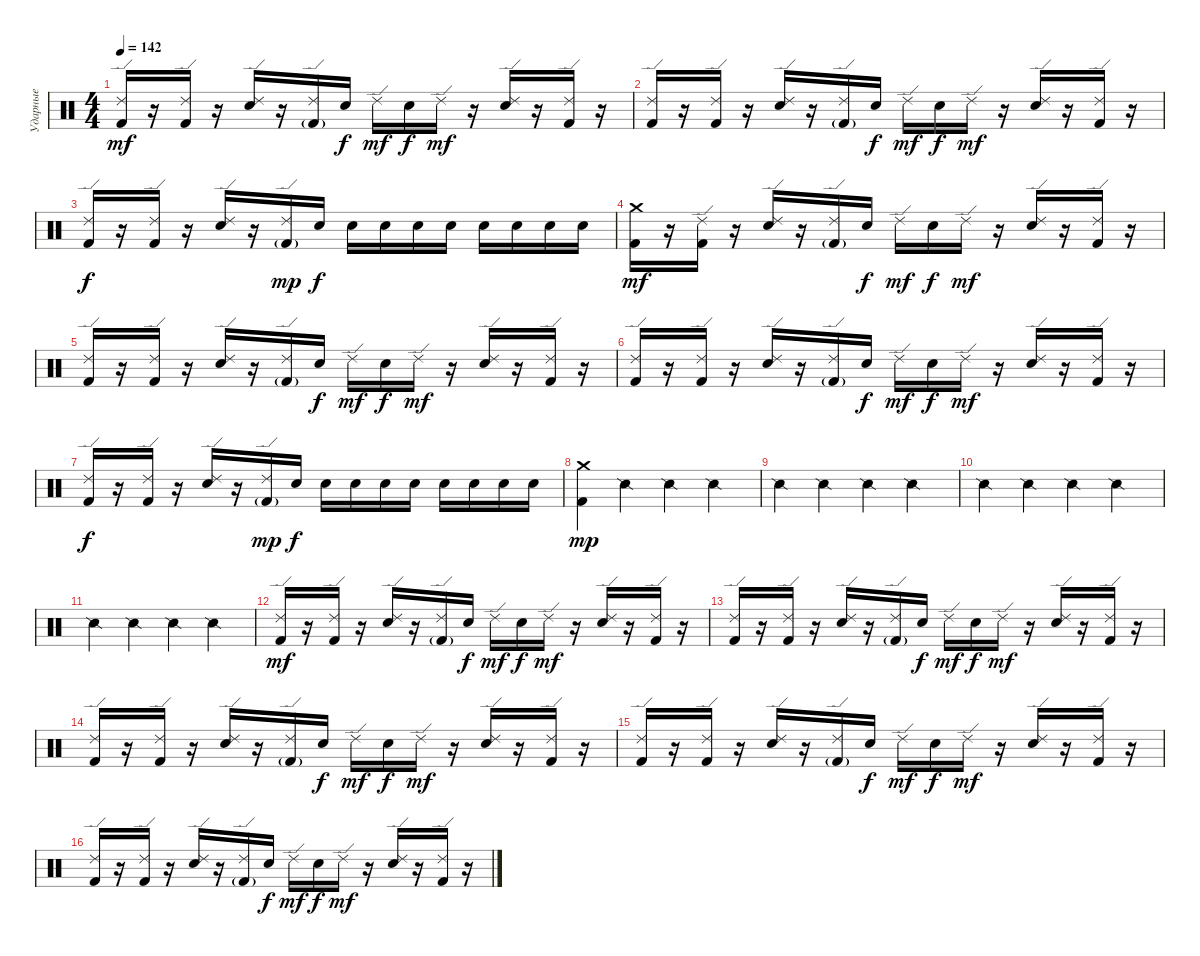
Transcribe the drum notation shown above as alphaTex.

\track ("Ударные" "Ударные") {instrument percussion}
\staff {score}
\articulation defaults
\ts (4 4)
\tempo 142
\clef neutral
\ks c
("Kick (hit) 2" "Ride (edge) 2").16{dy mf} r.16 ("Kick (hit) 2" "Ride (edge) 2").16 r.16 ("Electric Snare (hit)" "Ride (edge) 2").16 r.16 ("Kick (hit) 2"{g} "Ride (edge) 2").16 "Electric Snare (hit)".16{dy f} "Ride (edge) 2".16{dy mf} "Electric Snare (hit)".16{dy f} "Ride (edge) 2".16{dy mf} r.16 ("Electric Snare (hit)" "Ride (edge) 2").16 r.16 ("Kick (hit) 2" "Ride (edge) 2").16 r.16 |
("Kick (hit) 2" "Ride (edge) 2").16 r.16 ("Kick (hit) 2" "Ride (edge) 2").16 r.16 ("Electric Snare (hit)" "Ride (edge) 2").16 r.16 ("Kick (hit) 2"{g} "Ride (edge) 2").16 "Electric Snare (hit)".16{dy f} "Ride (edge) 2".16{dy mf} "Electric Snare (hit)".16{dy f} "Ride (edge) 2".16{dy mf} r.16 ("Electric Snare (hit)" "Ride (edge) 2").16 r.16 ("Kick (hit) 2" "Ride (edge) 2").16 r.16 |
("Kick (hit) 2" "Ride (edge) 2").16{dy f} r.16 ("Kick (hit) 2" "Ride (edge) 2").16 r.16 ("Electric Snare (hit)" "Ride (edge) 2").16 r.16 ("Kick (hit) 2"{g} "Ride (edge) 2").16{dy mp} "Electric Snare (hit)".16{dy f} "Electric Snare (hit)".16 "Electric Snare (hit)".16 "Electric Snare (hit)".16 "Electric Snare (hit)".16 "Electric Snare (hit)".16 "Electric Snare (hit)".16 "Electric Snare (hit)".16 "Electric Snare (hit)".16 |
("Kick (hit) 2" "Crash medium (hit)").16{dy mf} r.16 ("Kick (hit) 2" "Ride (edge) 2").16 r.16 ("Electric Snare (hit)" "Ride (edge) 2").16 r.16 ("Kick (hit) 2"{g} "Ride (edge) 2").16 "Electric Snare (hit)".16{dy f} "Ride (edge) 2".16{dy mf} "Electric Snare (hit)".16{dy f} "Ride (edge) 2".16{dy mf} r.16 ("Electric Snare (hit)" "Ride (edge) 2").16 r.16 ("Kick (hit) 2" "Ride (edge) 2").16 r.16 |
("Kick (hit) 2" "Ride (edge) 2").16 r.16 ("Kick (hit) 2" "Ride (edge) 2").16 r.16 ("Electric Snare (hit)" "Ride (edge) 2").16 r.16 ("Kick (hit) 2"{g} "Ride (edge) 2").16 "Electric Snare (hit)".16{dy f} "Ride (edge) 2".16{dy mf} "Electric Snare (hit)".16{dy f} "Ride (edge) 2".16{dy mf} r.16 ("Electric Snare (hit)" "Ride (edge) 2").16 r.16 ("Kick (hit) 2" "Ride (edge) 2").16 r.16 |
("Kick (hit) 2" "Ride (edge) 2").16 r.16 ("Kick (hit) 2" "Ride (edge) 2").16 r.16 ("Electric Snare (hit)" "Ride (edge) 2").16 r.16 ("Kick (hit) 2"{g} "Ride (edge) 2").16 "Electric Snare (hit)".16{dy f} "Ride (edge) 2".16{dy mf} "Electric Snare (hit)".16{dy f} "Ride (edge) 2".16{dy mf} r.16 ("Electric Snare (hit)" "Ride (edge) 2").16 r.16 ("Kick (hit) 2" "Ride (edge) 2").16 r.16 |
("Kick (hit) 2" "Ride (edge) 2").16{dy f} r.16 ("Kick (hit) 2" "Ride (edge) 2").16 r.16 ("Electric Snare (hit)" "Ride (edge) 2").16 r.16 ("Kick (hit) 2"{g} "Ride (edge) 2").16{dy mp} "Electric Snare (hit)".16{dy f} "Electric Snare (hit)".16 "Electric Snare (hit)".16 "Electric Snare (hit)".16 "Electric Snare (hit)".16 "Electric Snare (hit)".16 "Electric Snare (hit)".16 "Electric Snare (hit)".16 "Electric Snare (hit)".16 |
("Kick (hit) 2" "Crash medium (hit)").4{dy mp} "Snare (side stick) 2".4 "Snare (side stick) 2".4 "Snare (side stick) 2".4 |
"Snare (side stick) 2".4 "Snare (side stick) 2".4 "Snare (side stick) 2".4 "Snare (side stick) 2".4 |
"Snare (side stick) 2".4 "Snare (side stick) 2".4 "Snare (side stick) 2".4 "Snare (side stick) 2".4 |
"Snare (side stick) 2".4 "Snare (side stick) 2".4 "Snare (side stick) 2".4 "Snare (side stick) 2".4 |
("Kick (hit) 2" "Ride (edge) 2").16{dy mf} r.16 ("Kick (hit) 2" "Ride (edge) 2").16 r.16 ("Electric Snare (hit)" "Ride (edge) 2").16 r.16 ("Kick (hit) 2"{g} "Ride (edge) 2").16 "Electric Snare (hit)".16{dy f} "Ride (edge) 2".16{dy mf} "Electric Snare (hit)".16{dy f} "Ride (edge) 2".16{dy mf} r.16 ("Electric Snare (hit)" "Ride (edge) 2").16 r.16 ("Kick (hit) 2" "Ride (edge) 2").16 r.16 |
("Kick (hit) 2" "Ride (edge) 2").16 r.16 ("Kick (hit) 2" "Ride (edge) 2").16 r.16 ("Electric Snare (hit)" "Ride (edge) 2").16 r.16 ("Kick (hit) 2"{g} "Ride (edge) 2").16 "Electric Snare (hit)".16{dy f} "Ride (edge) 2".16{dy mf} "Electric Snare (hit)".16{dy f} "Ride (edge) 2".16{dy mf} r.16 ("Electric Snare (hit)" "Ride (edge) 2").16 r.16 ("Kick (hit) 2" "Ride (edge) 2").16 r.16 |
("Kick (hit) 2" "Ride (edge) 2").16 r.16 ("Kick (hit) 2" "Ride (edge) 2").16 r.16 ("Electric Snare (hit)" "Ride (edge) 2").16 r.16 ("Kick (hit) 2"{g} "Ride (edge) 2").16 "Electric Snare (hit)".16{dy f} "Ride (edge) 2".16{dy mf} "Electric Snare (hit)".16{dy f} "Ride (edge) 2".16{dy mf} r.16 ("Electric Snare (hit)" "Ride (edge) 2").16 r.16 ("Kick (hit) 2" "Ride (edge) 2").16 r.16 |
("Kick (hit) 2" "Ride (edge) 2").16 r.16 ("Kick (hit) 2" "Ride (edge) 2").16 r.16 ("Electric Snare (hit)" "Ride (edge) 2").16 r.16 ("Kick (hit) 2"{g} "Ride (edge) 2").16 "Electric Snare (hit)".16{dy f} "Ride (edge) 2".16{dy mf} "Electric Snare (hit)".16{dy f} "Ride (edge) 2".16{dy mf} r.16 ("Electric Snare (hit)" "Ride (edge) 2").16 r.16 ("Kick (hit) 2" "Ride (edge) 2").16 r.16 |
("Kick (hit) 2" "Ride (edge) 2").16 r.16 ("Kick (hit) 2" "Ride (edge) 2").16 r.16 ("Electric Snare (hit)" "Ride (edge) 2").16 r.16 ("Kick (hit) 2"{g} "Ride (edge) 2").16 "Electric Snare (hit)".16{dy f} "Ride (edge) 2".16{dy mf} "Electric Snare (hit)".16{dy f} "Ride (edge) 2".16{dy mf} r.16 ("Electric Snare (hit)" "Ride (edge) 2").16 r.16 ("Kick (hit) 2" "Ride (edge) 2").16 r.16
